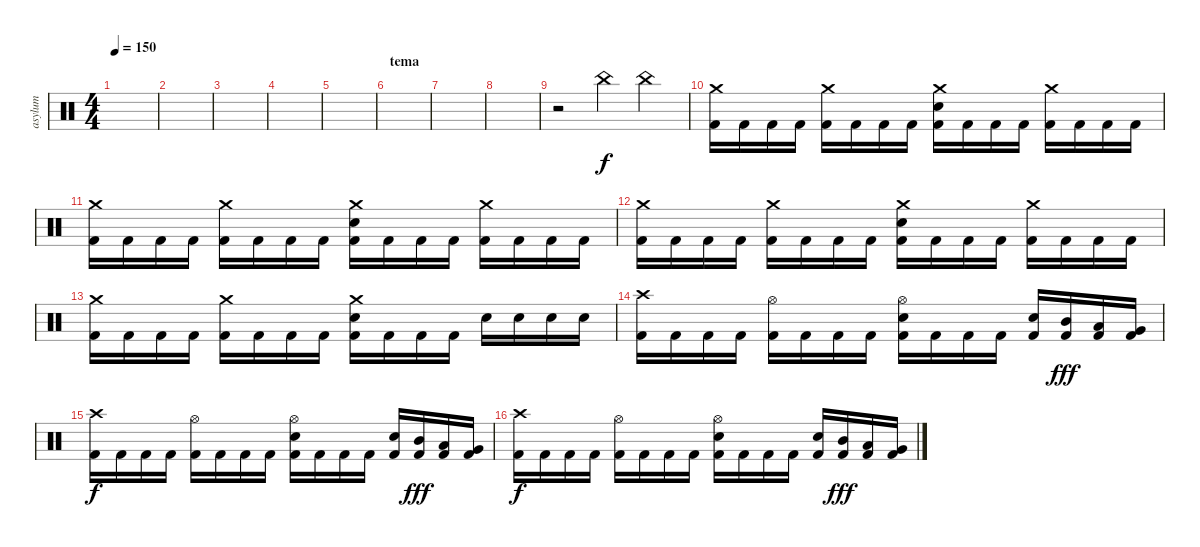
\track ("asylum" "asylum") {instrument percussion}
\staff {score}
\articulation defaults
\ts (4 4)
\tempo 150
\clef neutral
\ks c
|
|
|
|
|
\section ("" "tema")
|
|
|
r.2 "China (hit)".4 "China (hit)".4 |
("Crash medium (hit)" "Kick (hit) 2").16 "Kick (hit) 2".16 "Kick (hit) 2".16 "Kick (hit) 2".16 ("Crash medium (hit)" "Kick (hit) 2").16 "Kick (hit) 2".16 "Kick (hit) 2".16 "Kick (hit) 2".16 ("Crash medium (hit)" "Electric Snare (hit)" "Kick (hit) 2").16 "Kick (hit) 2".16 "Kick (hit) 2".16 "Kick (hit) 2".16 ("Crash medium (hit)" "Kick (hit) 2").16 "Kick (hit) 2".16 "Kick (hit) 2".16 "Kick (hit) 2".16 |
("Crash medium (hit)" "Kick (hit) 2").16 "Kick (hit) 2".16 "Kick (hit) 2".16 "Kick (hit) 2".16 ("Crash medium (hit)" "Kick (hit) 2").16 "Kick (hit) 2".16 "Kick (hit) 2".16 "Kick (hit) 2".16 ("Crash medium (hit)" "Electric Snare (hit)" "Kick (hit) 2").16 "Kick (hit) 2".16 "Kick (hit) 2".16 "Kick (hit) 2".16 ("Crash medium (hit)" "Kick (hit) 2").16 "Kick (hit) 2".16 "Kick (hit) 2".16 "Kick (hit) 2".16 |
("Crash medium (hit)" "Kick (hit) 2").16 "Kick (hit) 2".16 "Kick (hit) 2".16 "Kick (hit) 2".16 ("Crash medium (hit)" "Kick (hit) 2").16 "Kick (hit) 2".16 "Kick (hit) 2".16 "Kick (hit) 2".16 ("Crash medium (hit)" "Electric Snare (hit)" "Kick (hit) 2").16 "Kick (hit) 2".16 "Kick (hit) 2".16 "Kick (hit) 2".16 ("Crash medium (hit)" "Kick (hit) 2").16 "Kick (hit) 2".16 "Kick (hit) 2".16 "Kick (hit) 2".16 |
("Crash medium (hit)" "Kick (hit) 2").16 "Kick (hit) 2".16 "Kick (hit) 2".16 "Kick (hit) 2".16 ("Crash medium (hit)" "Kick (hit) 2").16 "Kick (hit) 2".16 "Kick (hit) 2".16 "Kick (hit) 2".16 ("Crash medium (hit)" "Electric Snare (hit)" "Kick (hit) 2").16 "Kick (hit) 2".16 "Kick (hit) 2".16 "Kick (hit) 2".16 "Electric Snare (hit)".16 "Electric Snare (hit)".16 "Electric Snare (hit)".16 "Electric Snare (hit)".16 |
("Crash high (hit)" "Kick (hit) 2").16 "Kick (hit) 2".16 "Kick (hit) 2".16 "Kick (hit) 2".16 ("Hi-Hat (open)" "Kick (hit) 2").16 "Kick (hit) 2".16 "Kick (hit) 2".16 "Kick (hit) 2".16 ("Hi-Hat (open)" "Electric Snare (hit)" "Kick (hit) 2").16 "Kick (hit) 2".16 "Kick (hit) 2".16 "Kick (hit) 2".16 ("Electric Snare (hit)" "Kick (hit) 2").16 ("Mid Tom (hit)" "Kick (hit) 2").16{dy fff} ("Low Tom (hit)" "Kick (hit) 2").16 ("Very Low Tom (hit)" "Kick (hit) 2").16 |
("Crash high (hit)" "Kick (hit) 2").16{dy f} "Kick (hit) 2".16 "Kick (hit) 2".16 "Kick (hit) 2".16 ("Hi-Hat (open)" "Kick (hit) 2").16 "Kick (hit) 2".16 "Kick (hit) 2".16 "Kick (hit) 2".16 ("Hi-Hat (open)" "Electric Snare (hit)" "Kick (hit) 2").16 "Kick (hit) 2".16 "Kick (hit) 2".16 "Kick (hit) 2".16 ("Electric Snare (hit)" "Kick (hit) 2").16 ("Mid Tom (hit)" "Kick (hit) 2").16{dy fff} ("Low Tom (hit)" "Kick (hit) 2").16 ("Very Low Tom (hit)" "Kick (hit) 2").16 |
("Crash high (hit)" "Kick (hit) 2").16{dy f} "Kick (hit) 2".16 "Kick (hit) 2".16 "Kick (hit) 2".16 ("Hi-Hat (open)" "Kick (hit) 2").16 "Kick (hit) 2".16 "Kick (hit) 2".16 "Kick (hit) 2".16 ("Hi-Hat (open)" "Electric Snare (hit)" "Kick (hit) 2").16 "Kick (hit) 2".16 "Kick (hit) 2".16 "Kick (hit) 2".16 ("Electric Snare (hit)" "Kick (hit) 2").16 ("Mid Tom (hit)" "Kick (hit) 2").16{dy fff} ("Low Tom (hit)" "Kick (hit) 2").16 ("Very Low Tom (hit)" "Kick (hit) 2").16
